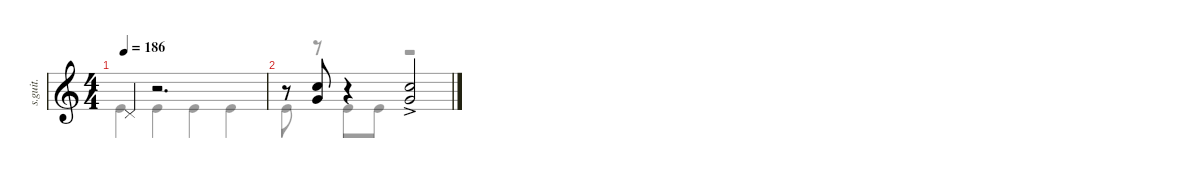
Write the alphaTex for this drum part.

\defaultSystemsLayout 4
\hideDynamics
\bracketExtendMode nobrackets
\track ("Tre Cool" "s.guit.") {instrument percussion}
\staff {score}
\articulation defaults
\voice
\ts (4 4)
\tempo 186
\clef g2
\ks c "Pedal Hi-Hat (hit)".4{dy f}
r.2{d} |
r.8 ("Snare (hit) 2" "Very Low Tom (hit)").8 r.4 ("Snare (hit) 2"{ac} "Very Low Tom (hit)"{ac}).2{dy p}
\voice
\clef g2
\ottava regular
\simile none
\ks c "Kick (hit)".4{dy f} "Kick (hit)".4 "Kick (hit)".4 "Kick (hit)".4
|
"Kick (hit)".8 r.8 "Kick (hit)".8 "Kick (hit)".8 r.2
